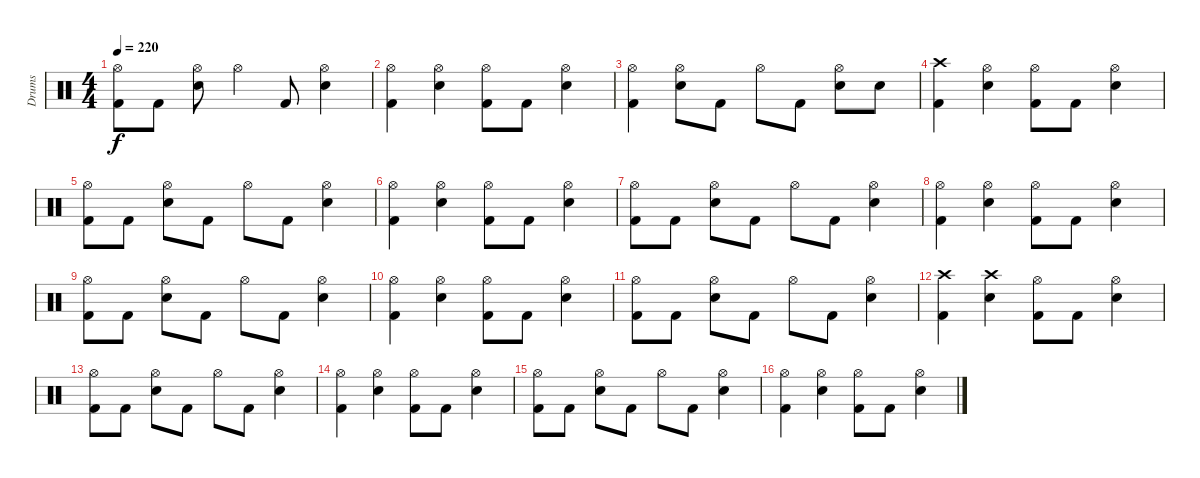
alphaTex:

\track ("Drums" "Drums") {instrument percussion}
\staff {score}
\articulation defaults
\ts (4 4)
\tempo 220
\clef neutral
\ks c
("Hi-Hat (open)" "Kick (hit) 2").8{dy f} "Kick (hit) 2".8 ("Hi-Hat (open)" "Snare (hit) 2").8 "Hi-Hat (open)".4 "Kick (hit) 2".8 ("Hi-Hat (open)" "Snare (hit) 2").4 |
("Hi-Hat (open)" "Kick (hit) 2").4 ("Hi-Hat (open)" "Snare (hit) 2").4 ("Hi-Hat (open)" "Kick (hit) 2").8 "Kick (hit) 2".8 ("Hi-Hat (open)" "Snare (hit) 2").4 |
("Hi-Hat (open)" "Kick (hit) 2").4 ("Hi-Hat (open)" "Snare (hit) 2").8 "Kick (hit) 2".8 "Hi-Hat (open)".8 "Kick (hit) 2".8 ("Hi-Hat (open)" "Snare (hit) 2").8 "Snare (hit) 2".8 |
("Crash high (hit)" "Kick (hit) 2").4 ("Hi-Hat (open)" "Snare (hit) 2").4 ("Hi-Hat (open)" "Kick (hit) 2").8 "Kick (hit) 2".8 ("Hi-Hat (open)" "Snare (hit) 2").4 |
("Hi-Hat (open)" "Kick (hit) 2").8 "Kick (hit) 2".8 ("Hi-Hat (open)" "Snare (hit) 2").8 "Kick (hit) 2".8 "Hi-Hat (open)".8 "Kick (hit) 2".8 ("Hi-Hat (open)" "Snare (hit) 2").4 |
("Hi-Hat (open)" "Kick (hit) 2").4 ("Hi-Hat (open)" "Snare (hit) 2").4 ("Hi-Hat (open)" "Kick (hit) 2").8 "Kick (hit) 2".8 ("Hi-Hat (open)" "Snare (hit) 2").4 |
("Hi-Hat (open)" "Kick (hit) 2").8 "Kick (hit) 2".8 ("Hi-Hat (open)" "Snare (hit) 2").8 "Kick (hit) 2".8 "Hi-Hat (open)".8 "Kick (hit) 2".8 ("Hi-Hat (open)" "Snare (hit) 2").4 |
("Hi-Hat (open)" "Kick (hit) 2").4 ("Hi-Hat (open)" "Snare (hit) 2").4 ("Hi-Hat (open)" "Kick (hit) 2").8 "Kick (hit) 2".8 ("Hi-Hat (open)" "Snare (hit) 2").4 |
("Hi-Hat (open)" "Kick (hit) 2").8 "Kick (hit) 2".8 ("Hi-Hat (open)" "Snare (hit) 2").8 "Kick (hit) 2".8 "Hi-Hat (open)".8 "Kick (hit) 2".8 ("Hi-Hat (open)" "Snare (hit) 2").4 |
("Hi-Hat (open)" "Kick (hit) 2").4 ("Hi-Hat (open)" "Snare (hit) 2").4 ("Hi-Hat (open)" "Kick (hit) 2").8 "Kick (hit) 2".8 ("Hi-Hat (open)" "Snare (hit) 2").4 |
("Hi-Hat (open)" "Kick (hit) 2").8 "Kick (hit) 2".8 ("Hi-Hat (open)" "Snare (hit) 2").8 "Kick (hit) 2".8 "Hi-Hat (open)".8 "Kick (hit) 2".8 ("Hi-Hat (open)" "Snare (hit) 2").4 |
("Crash high (hit)" "Kick (hit) 2").4 ("Crash high (hit)" "Snare (hit) 2").4 ("Hi-Hat (open)" "Kick (hit) 2").8 "Kick (hit) 2".8 ("Hi-Hat (open)" "Snare (hit) 2").4 |
("Hi-Hat (open)" "Kick (hit) 2").8 "Kick (hit) 2".8 ("Hi-Hat (open)" "Snare (hit) 2").8 "Kick (hit) 2".8 "Hi-Hat (open)".8 "Kick (hit) 2".8 ("Hi-Hat (open)" "Snare (hit) 2").4 |
("Hi-Hat (open)" "Kick (hit) 2").4 ("Hi-Hat (open)" "Snare (hit) 2").4 ("Hi-Hat (open)" "Kick (hit) 2").8 "Kick (hit) 2".8 ("Hi-Hat (open)" "Snare (hit) 2").4 |
("Hi-Hat (open)" "Kick (hit) 2").8 "Kick (hit) 2".8 ("Hi-Hat (open)" "Snare (hit) 2").8 "Kick (hit) 2".8 "Hi-Hat (open)".8 "Kick (hit) 2".8 ("Hi-Hat (open)" "Snare (hit) 2").4 |
("Hi-Hat (open)" "Kick (hit) 2").4 ("Hi-Hat (open)" "Snare (hit) 2").4 ("Hi-Hat (open)" "Kick (hit) 2").8 "Kick (hit) 2".8 ("Hi-Hat (open)" "Snare (hit) 2").4
